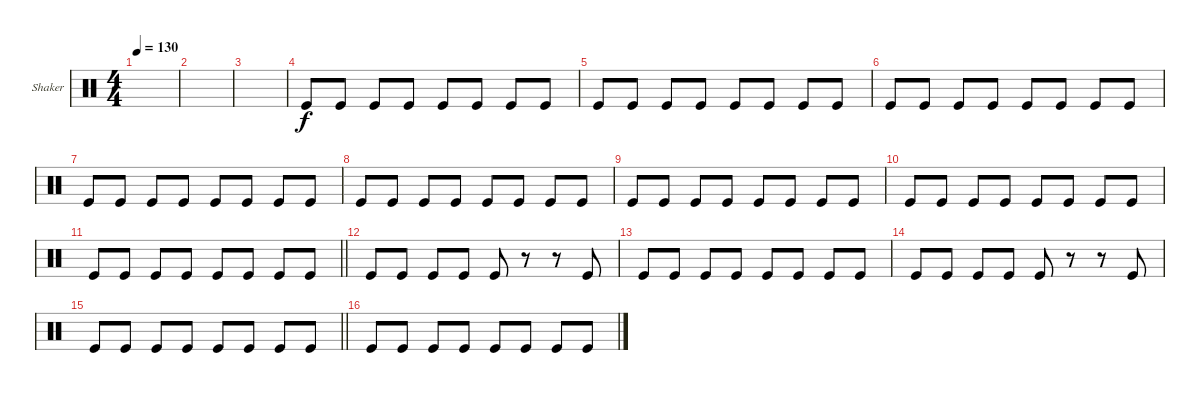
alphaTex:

\defaultSystemsLayout 4
\bracketExtendMode groupsimilarinstruments
\firstSystemTrackNameOrientation horizontal
\otherSystemsTrackNameOrientation horizontal
\track ("Shaker" "Shaker") {instrument percussion}
\staff {score}
\articulation defaults
\ts (4 4)
\tempo 130
\clef neutral
\scale
0.333333
\ks aminor
|
\scale
0.333333 |
\scale
0.333333 |
\scale
0.333333 "Kick (hit)".8 "Kick (hit)".8 "Kick (hit)".8 "Kick (hit)".8 "Kick (hit)".8 "Kick (hit)".8 "Kick (hit)".8 "Kick (hit)".8 |
\scale
0.333333 "Kick (hit)".8 "Kick (hit)".8 "Kick (hit)".8 "Kick (hit)".8 "Kick (hit)".8 "Kick (hit)".8 "Kick (hit)".8 "Kick (hit)".8 |
\scale
0.333333 "Kick (hit)".8 "Kick (hit)".8 "Kick (hit)".8 "Kick (hit)".8 "Kick (hit)".8 "Kick (hit)".8 "Kick (hit)".8 "Kick (hit)".8 |
\scale
0.333333 "Kick (hit)".8 "Kick (hit)".8 "Kick (hit)".8 "Kick (hit)".8 "Kick (hit)".8 "Kick (hit)".8 "Kick (hit)".8 "Kick (hit)".8 |
\scale
0.333333 "Kick (hit)".8 "Kick (hit)".8 "Kick (hit)".8 "Kick (hit)".8 "Kick (hit)".8 "Kick (hit)".8 "Kick (hit)".8 "Kick (hit)".8 |
\scale
0.333333 "Kick (hit)".8 "Kick (hit)".8 "Kick (hit)".8 "Kick (hit)".8 "Kick (hit)".8 "Kick (hit)".8 "Kick (hit)".8 "Kick (hit)".8 |
\scale
0.333333 "Kick (hit)".8 "Kick (hit)".8 "Kick (hit)".8 "Kick (hit)".8 "Kick (hit)".8 "Kick (hit)".8 "Kick (hit)".8 "Kick (hit)".8 |
\scale
0.333333
\barLineRight lightlight "Kick (hit)".8 "Kick (hit)".8 "Kick (hit)".8 "Kick (hit)".8 "Kick (hit)".8 "Kick (hit)".8 "Kick (hit)".8 "Kick (hit)".8
|
\scale
0.333333 "Kick (hit)".8 "Kick (hit)".8 "Kick (hit)".8 "Kick (hit)".8 "Kick (hit)".8 r.8 r.8 "Kick (hit)".8 |
\scale
0.333333 "Kick (hit)".8 "Kick (hit)".8 "Kick (hit)".8 "Kick (hit)".8 "Kick (hit)".8 "Kick (hit)".8 "Kick (hit)".8 "Kick (hit)".8 |
\scale
0.333333 "Kick (hit)".8 "Kick (hit)".8 "Kick (hit)".8 "Kick (hit)".8 "Kick (hit)".8 r.8 r.8 "Kick (hit)".8 |
\scale
0.333333
\barLineRight lightlight "Kick (hit)".8 "Kick (hit)".8 "Kick (hit)".8 "Kick (hit)".8 "Kick (hit)".8 "Kick (hit)".8 "Kick (hit)".8 "Kick (hit)".8
|
\scale
0.333333 "Kick (hit)".8 "Kick (hit)".8 "Kick (hit)".8 "Kick (hit)".8 "Kick (hit)".8 "Kick (hit)".8 "Kick (hit)".8 "Kick (hit)".8
